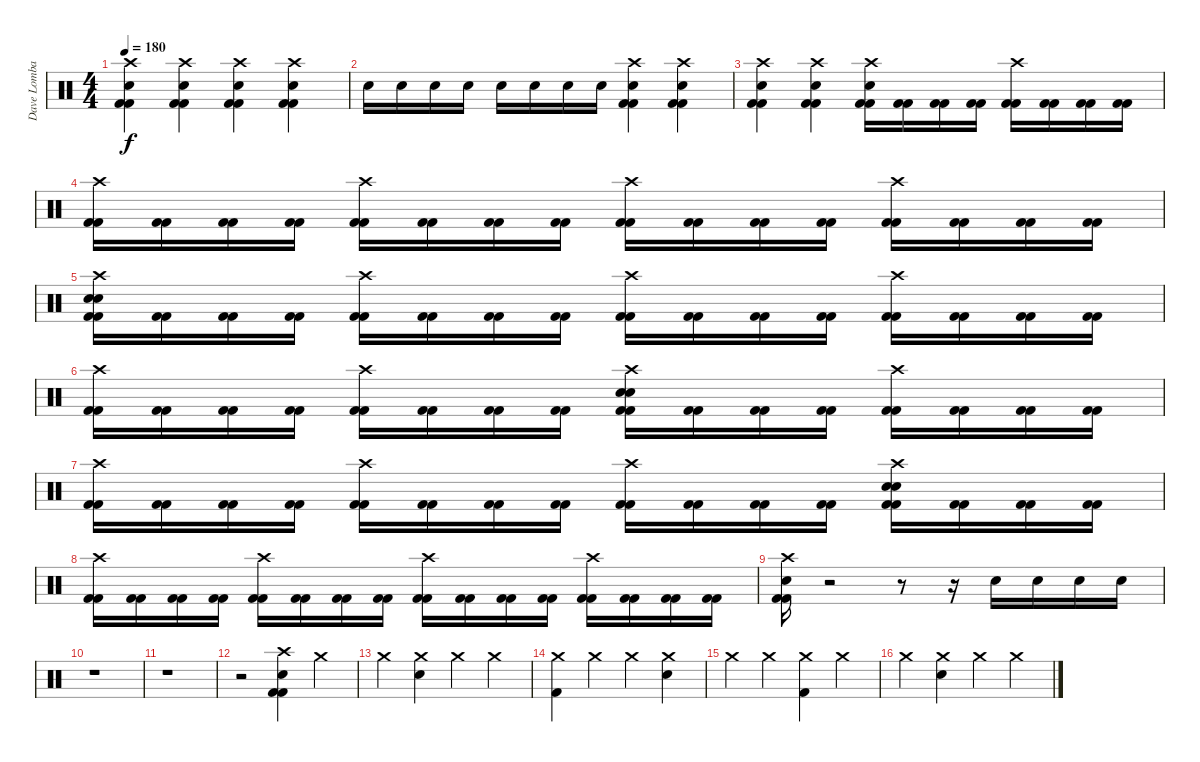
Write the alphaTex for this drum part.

\track ("Dave Lombardo" "Dave Lomba") {instrument percussion}
\staff {score}
\articulation defaults
\ts (4 4)
\tempo 180
\clef neutral
\ks c
("Crash high (hit)" "Electric Snare (hit)" "Kick (hit) 2" "Kick (hit) 2").4{dy f} ("Crash high (hit)" "Electric Snare (hit)" "Kick (hit) 2" "Kick (hit) 2").4 ("Crash high (hit)" "Electric Snare (hit)" "Kick (hit) 2" "Kick (hit) 2").4 ("Crash high (hit)" "Electric Snare (hit)" "Kick (hit) 2" "Kick (hit) 2").4 |
"Electric Snare (hit)".16 "Electric Snare (hit)".16 "Electric Snare (hit)".16 "Electric Snare (hit)".16 "Electric Snare (hit)".16 "Electric Snare (hit)".16 "Electric Snare (hit)".16 "Electric Snare (hit)".16 ("Crash high (hit)" "Electric Snare (hit)" "Kick (hit) 2" "Kick (hit) 2").4 ("Crash high (hit)" "Electric Snare (hit)" "Kick (hit) 2" "Kick (hit) 2").4 |
("Crash high (hit)" "Electric Snare (hit)" "Kick (hit) 2" "Kick (hit) 2").4 ("Crash high (hit)" "Electric Snare (hit)" "Kick (hit) 2" "Kick (hit) 2").4 ("Crash high (hit)" "Electric Snare (hit)" "Kick (hit) 2" "Kick (hit) 2").16 ("Kick (hit) 2" "Kick (hit) 2").16 ("Kick (hit) 2" "Kick (hit) 2").16 ("Kick (hit) 2" "Kick (hit) 2").16 ("Crash high (hit)" "Kick (hit) 2" "Kick (hit) 2").16 ("Kick (hit) 2" "Kick (hit) 2").16 ("Kick (hit) 2" "Kick (hit) 2").16 ("Kick (hit) 2" "Kick (hit) 2").16 |
("Crash high (hit)" "Kick (hit) 2" "Kick (hit) 2").16 ("Kick (hit) 2" "Kick (hit) 2").16 ("Kick (hit) 2" "Kick (hit) 2").16 ("Kick (hit) 2" "Kick (hit) 2").16 ("Crash high (hit)" "Kick (hit) 2" "Kick (hit) 2").16 ("Kick (hit) 2" "Kick (hit) 2").16 ("Kick (hit) 2" "Kick (hit) 2").16 ("Kick (hit) 2" "Kick (hit) 2").16 ("Crash high (hit)" "Kick (hit) 2" "Kick (hit) 2").16 ("Kick (hit) 2" "Kick (hit) 2").16 ("Kick (hit) 2" "Kick (hit) 2").16 ("Kick (hit) 2" "Kick (hit) 2").16 ("Crash high (hit)" "Kick (hit) 2" "Kick (hit) 2").16 ("Kick (hit) 2" "Kick (hit) 2").16 ("Kick (hit) 2" "Kick (hit) 2").16 ("Kick (hit) 2" "Kick (hit) 2").16 |
("Crash high (hit)" "Electric Snare (hit)" "Electric Snare (hit)" "Kick (hit) 2" "Kick (hit) 2").16 ("Kick (hit) 2" "Kick (hit) 2").16 ("Kick (hit) 2" "Kick (hit) 2").16 ("Kick (hit) 2" "Kick (hit) 2").16 ("Crash high (hit)" "Kick (hit) 2" "Kick (hit) 2").16 ("Kick (hit) 2" "Kick (hit) 2").16 ("Kick (hit) 2" "Kick (hit) 2").16 ("Kick (hit) 2" "Kick (hit) 2").16 ("Crash high (hit)" "Kick (hit) 2" "Kick (hit) 2").16 ("Kick (hit) 2" "Kick (hit) 2").16 ("Kick (hit) 2" "Kick (hit) 2").16 ("Kick (hit) 2" "Kick (hit) 2").16 ("Crash high (hit)" "Kick (hit) 2" "Kick (hit) 2").16 ("Kick (hit) 2" "Kick (hit) 2").16 ("Kick (hit) 2" "Kick (hit) 2").16 ("Kick (hit) 2" "Kick (hit) 2").16 |
("Crash high (hit)" "Kick (hit) 2" "Kick (hit) 2").16 ("Kick (hit) 2" "Kick (hit) 2").16 ("Kick (hit) 2" "Kick (hit) 2").16 ("Kick (hit) 2" "Kick (hit) 2").16 ("Crash high (hit)" "Kick (hit) 2" "Kick (hit) 2").16 ("Kick (hit) 2" "Kick (hit) 2").16 ("Kick (hit) 2" "Kick (hit) 2").16 ("Kick (hit) 2" "Kick (hit) 2").16 ("Crash high (hit)" "Electric Snare (hit)" "Electric Snare (hit)" "Kick (hit) 2" "Kick (hit) 2").16 ("Kick (hit) 2" "Kick (hit) 2").16 ("Kick (hit) 2" "Kick (hit) 2").16 ("Kick (hit) 2" "Kick (hit) 2").16 ("Crash high (hit)" "Kick (hit) 2" "Kick (hit) 2").16 ("Kick (hit) 2" "Kick (hit) 2").16 ("Kick (hit) 2" "Kick (hit) 2").16 ("Kick (hit) 2" "Kick (hit) 2").16 |
("Crash high (hit)" "Kick (hit) 2" "Kick (hit) 2").16 ("Kick (hit) 2" "Kick (hit) 2").16 ("Kick (hit) 2" "Kick (hit) 2").16 ("Kick (hit) 2" "Kick (hit) 2").16 ("Crash high (hit)" "Kick (hit) 2" "Kick (hit) 2").16 ("Kick (hit) 2" "Kick (hit) 2").16 ("Kick (hit) 2" "Kick (hit) 2").16 ("Kick (hit) 2" "Kick (hit) 2").16 ("Crash high (hit)" "Kick (hit) 2" "Kick (hit) 2").16 ("Kick (hit) 2" "Kick (hit) 2").16 ("Kick (hit) 2" "Kick (hit) 2").16 ("Kick (hit) 2" "Kick (hit) 2").16 ("Crash high (hit)" "Electric Snare (hit)" "Electric Snare (hit)" "Kick (hit) 2" "Kick (hit) 2").16 ("Kick (hit) 2" "Kick (hit) 2").16 ("Kick (hit) 2" "Kick (hit) 2").16 ("Kick (hit) 2" "Kick (hit) 2").16 |
("Crash high (hit)" "Kick (hit) 2" "Kick (hit) 2").16 ("Kick (hit) 2" "Kick (hit) 2").16 ("Kick (hit) 2" "Kick (hit) 2").16 ("Kick (hit) 2" "Kick (hit) 2").16 ("Crash high (hit)" "Kick (hit) 2" "Kick (hit) 2").16 ("Kick (hit) 2" "Kick (hit) 2").16 ("Kick (hit) 2" "Kick (hit) 2").16 ("Kick (hit) 2" "Kick (hit) 2").16 ("Crash high (hit)" "Kick (hit) 2" "Kick (hit) 2").16 ("Kick (hit) 2" "Kick (hit) 2").16 ("Kick (hit) 2" "Kick (hit) 2").16 ("Kick (hit) 2" "Kick (hit) 2").16 ("Crash high (hit)" "Kick (hit) 2" "Kick (hit) 2").16 ("Kick (hit) 2" "Kick (hit) 2").16 ("Kick (hit) 2" "Kick (hit) 2").16 ("Kick (hit) 2" "Kick (hit) 2").16 |
("Crash high (hit)" "Electric Snare (hit)" "Kick (hit) 2" "Kick (hit) 2").16 r.2 r.8 r.16 "Electric Snare (hit)".16 "Electric Snare (hit)".16 "Electric Snare (hit)".16 "Electric Snare (hit)".16 |
r.1 |
r.1 |
r.2 ("Crash high (hit)" "Electric Snare (hit)" "Kick (hit) 2" "Kick (hit) 2").4 "Crash medium (hit)".4 |
"Crash medium (hit)".4 ("Crash medium (hit)" "Electric Snare (hit)").4 "Crash medium (hit)".4 "Crash medium (hit)".4 |
("Crash medium (hit)" "Kick (hit) 2").4 "Crash medium (hit)".4 "Crash medium (hit)".4 ("Crash medium (hit)" "Electric Snare (hit)").4 |
"Crash medium (hit)".4 "Crash medium (hit)".4 ("Crash medium (hit)" "Kick (hit) 2").4 "Crash medium (hit)".4 |
"Crash medium (hit)".4 ("Crash medium (hit)" "Electric Snare (hit)").4 "Crash medium (hit)".4 "Crash medium (hit)".4
